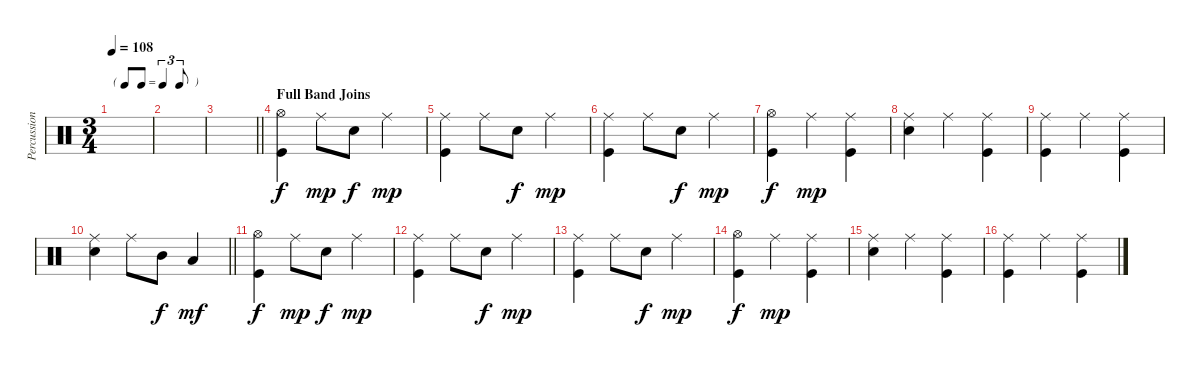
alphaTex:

\track ("Percussion" "Percussion") {instrument percussion}
\staff {score}
\articulation defaults
\ts (3 4)
\tf triplet8th
\tempo 108
\clef neutral
\ks c
|
|
\barLineRight lightlight
|
\section ("" "Full Band Joins")
("Hi-Hat (open)" "Kick (hit)").4 "Ride (middle)".8{dy mp} "Snare (hit) 2".8{dy f} "Ride (middle)".4{dy mp} |
("Ride (middle)" "Kick (hit)").4 "Ride (middle)".8 "Snare (hit) 2".8{dy f} "Ride (middle)".4{dy mp} |
("Ride (middle)" "Kick (hit)").4 "Ride (middle)".8 "Snare (hit) 2".8{dy f} "Ride (middle)".4{dy mp} |
("Hi-Hat (open)" "Kick (hit)").4{dy f} "Ride (middle)".4{dy mp} ("Ride (middle)" "Kick (hit)").4 |
("Ride (middle)" "Snare (hit) 2").4 "Ride (middle)".4 ("Ride (middle)" "Kick (hit)").4 |
("Ride (middle)" "Kick (hit)").4 "Ride (middle)".4 ("Ride (middle)" "Kick (hit)").4 |
\barLineRight lightlight
("Ride (middle)" "Snare (hit) 2").4 "Ride (middle)".8 "Mid Tom (hit)".8{dy f} "Low Tom (hit)".4{dy mf} |
("Hi-Hat (open)" "Kick (hit)").4{dy f} "Ride (middle)".8{dy mp} "Snare (hit) 2".8{dy f} "Ride (middle)".4{dy mp} |
("Ride (middle)" "Kick (hit)").4 "Ride (middle)".8 "Snare (hit) 2".8{dy f} "Ride (middle)".4{dy mp} |
("Ride (middle)" "Kick (hit)").4 "Ride (middle)".8 "Snare (hit) 2".8{dy f} "Ride (middle)".4{dy mp} |
("Hi-Hat (open)" "Kick (hit)").4{dy f} "Ride (middle)".4{dy mp} ("Ride (middle)" "Kick (hit)").4 |
("Ride (middle)" "Snare (hit) 2").4 "Ride (middle)".4 ("Ride (middle)" "Kick (hit)").4 |
("Ride (middle)" "Kick (hit)").4 "Ride (middle)".4 ("Ride (middle)" "Kick (hit)").4
